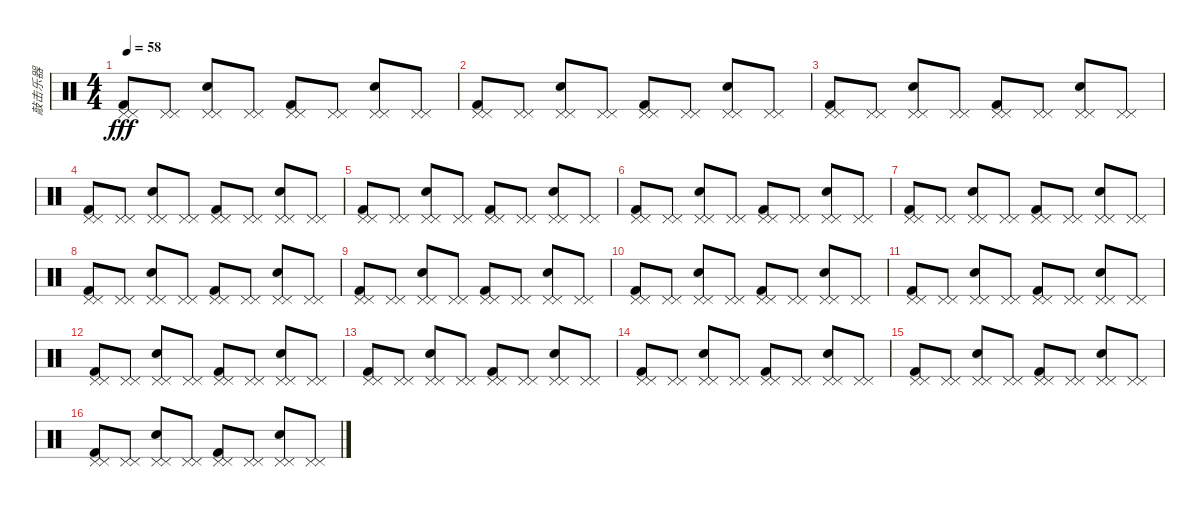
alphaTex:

\track ("敲击乐器" "敲击乐器") {instrument percussion}
\staff {score}
\articulation defaults
\ts (4 4)
\tempo 58
\clef neutral
\ks c
("Pedal Hi-Hat (hit)" "Pedal Hi-Hat (hit)" "Kick (hit) 2").8{dy fff} ("Pedal Hi-Hat (hit)" "Pedal Hi-Hat (hit)").8 ("Pedal Hi-Hat (hit)" "Pedal Hi-Hat (hit)" "Snare (hit) 2").8 ("Pedal Hi-Hat (hit)" "Pedal Hi-Hat (hit)").8 ("Pedal Hi-Hat (hit)" "Pedal Hi-Hat (hit)" "Kick (hit) 2").8 ("Pedal Hi-Hat (hit)" "Pedal Hi-Hat (hit)").8 ("Pedal Hi-Hat (hit)" "Pedal Hi-Hat (hit)" "Snare (hit) 2").8 ("Pedal Hi-Hat (hit)" "Pedal Hi-Hat (hit)").8 |
("Pedal Hi-Hat (hit)" "Pedal Hi-Hat (hit)" "Kick (hit) 2").8 ("Pedal Hi-Hat (hit)" "Pedal Hi-Hat (hit)").8 ("Pedal Hi-Hat (hit)" "Pedal Hi-Hat (hit)" "Snare (hit) 2").8 ("Pedal Hi-Hat (hit)" "Pedal Hi-Hat (hit)").8 ("Pedal Hi-Hat (hit)" "Pedal Hi-Hat (hit)" "Kick (hit) 2").8 ("Pedal Hi-Hat (hit)" "Pedal Hi-Hat (hit)").8 ("Pedal Hi-Hat (hit)" "Pedal Hi-Hat (hit)" "Snare (hit) 2").8 ("Pedal Hi-Hat (hit)" "Pedal Hi-Hat (hit)").8 |
("Pedal Hi-Hat (hit)" "Pedal Hi-Hat (hit)" "Kick (hit) 2").8 ("Pedal Hi-Hat (hit)" "Pedal Hi-Hat (hit)").8 ("Pedal Hi-Hat (hit)" "Pedal Hi-Hat (hit)" "Snare (hit) 2").8 ("Pedal Hi-Hat (hit)" "Pedal Hi-Hat (hit)").8 ("Pedal Hi-Hat (hit)" "Pedal Hi-Hat (hit)" "Kick (hit) 2").8 ("Pedal Hi-Hat (hit)" "Pedal Hi-Hat (hit)").8 ("Pedal Hi-Hat (hit)" "Pedal Hi-Hat (hit)" "Snare (hit) 2").8 ("Pedal Hi-Hat (hit)" "Pedal Hi-Hat (hit)").8 |
("Pedal Hi-Hat (hit)" "Pedal Hi-Hat (hit)" "Kick (hit) 2").8 ("Pedal Hi-Hat (hit)" "Pedal Hi-Hat (hit)").8 ("Pedal Hi-Hat (hit)" "Pedal Hi-Hat (hit)" "Snare (hit) 2").8 ("Pedal Hi-Hat (hit)" "Pedal Hi-Hat (hit)").8 ("Pedal Hi-Hat (hit)" "Pedal Hi-Hat (hit)" "Kick (hit) 2").8 ("Pedal Hi-Hat (hit)" "Pedal Hi-Hat (hit)").8 ("Pedal Hi-Hat (hit)" "Pedal Hi-Hat (hit)" "Snare (hit) 2").8 ("Pedal Hi-Hat (hit)" "Pedal Hi-Hat (hit)").8 |
("Pedal Hi-Hat (hit)" "Pedal Hi-Hat (hit)" "Kick (hit) 2").8 ("Pedal Hi-Hat (hit)" "Pedal Hi-Hat (hit)").8 ("Pedal Hi-Hat (hit)" "Pedal Hi-Hat (hit)" "Snare (hit) 2").8 ("Pedal Hi-Hat (hit)" "Pedal Hi-Hat (hit)").8 ("Pedal Hi-Hat (hit)" "Pedal Hi-Hat (hit)" "Kick (hit) 2").8 ("Pedal Hi-Hat (hit)" "Pedal Hi-Hat (hit)").8 ("Pedal Hi-Hat (hit)" "Pedal Hi-Hat (hit)" "Snare (hit) 2").8 ("Pedal Hi-Hat (hit)" "Pedal Hi-Hat (hit)").8 |
("Pedal Hi-Hat (hit)" "Pedal Hi-Hat (hit)" "Kick (hit) 2").8 ("Pedal Hi-Hat (hit)" "Pedal Hi-Hat (hit)").8 ("Pedal Hi-Hat (hit)" "Pedal Hi-Hat (hit)" "Snare (hit) 2").8 ("Pedal Hi-Hat (hit)" "Pedal Hi-Hat (hit)").8 ("Pedal Hi-Hat (hit)" "Pedal Hi-Hat (hit)" "Kick (hit) 2").8 ("Pedal Hi-Hat (hit)" "Pedal Hi-Hat (hit)").8 ("Pedal Hi-Hat (hit)" "Pedal Hi-Hat (hit)" "Snare (hit) 2").8 ("Pedal Hi-Hat (hit)" "Pedal Hi-Hat (hit)").8 |
("Pedal Hi-Hat (hit)" "Pedal Hi-Hat (hit)" "Kick (hit) 2").8 ("Pedal Hi-Hat (hit)" "Pedal Hi-Hat (hit)").8 ("Pedal Hi-Hat (hit)" "Pedal Hi-Hat (hit)" "Snare (hit) 2").8 ("Pedal Hi-Hat (hit)" "Pedal Hi-Hat (hit)").8 ("Pedal Hi-Hat (hit)" "Pedal Hi-Hat (hit)" "Kick (hit) 2").8 ("Pedal Hi-Hat (hit)" "Pedal Hi-Hat (hit)").8 ("Pedal Hi-Hat (hit)" "Pedal Hi-Hat (hit)" "Snare (hit) 2").8 ("Pedal Hi-Hat (hit)" "Pedal Hi-Hat (hit)").8 |
("Pedal Hi-Hat (hit)" "Pedal Hi-Hat (hit)" "Kick (hit) 2").8 ("Pedal Hi-Hat (hit)" "Pedal Hi-Hat (hit)").8 ("Pedal Hi-Hat (hit)" "Pedal Hi-Hat (hit)" "Snare (hit) 2").8 ("Pedal Hi-Hat (hit)" "Pedal Hi-Hat (hit)").8 ("Pedal Hi-Hat (hit)" "Pedal Hi-Hat (hit)" "Kick (hit) 2").8 ("Pedal Hi-Hat (hit)" "Pedal Hi-Hat (hit)").8 ("Pedal Hi-Hat (hit)" "Pedal Hi-Hat (hit)" "Snare (hit) 2").8 ("Pedal Hi-Hat (hit)" "Pedal Hi-Hat (hit)").8 |
("Pedal Hi-Hat (hit)" "Pedal Hi-Hat (hit)" "Kick (hit) 2").8 ("Pedal Hi-Hat (hit)" "Pedal Hi-Hat (hit)").8 ("Pedal Hi-Hat (hit)" "Pedal Hi-Hat (hit)" "Snare (hit) 2").8 ("Pedal Hi-Hat (hit)" "Pedal Hi-Hat (hit)").8 ("Pedal Hi-Hat (hit)" "Pedal Hi-Hat (hit)" "Kick (hit) 2").8 ("Pedal Hi-Hat (hit)" "Pedal Hi-Hat (hit)").8 ("Pedal Hi-Hat (hit)" "Pedal Hi-Hat (hit)" "Snare (hit) 2").8 ("Pedal Hi-Hat (hit)" "Pedal Hi-Hat (hit)").8 |
("Pedal Hi-Hat (hit)" "Pedal Hi-Hat (hit)" "Kick (hit) 2").8 ("Pedal Hi-Hat (hit)" "Pedal Hi-Hat (hit)").8 ("Pedal Hi-Hat (hit)" "Pedal Hi-Hat (hit)" "Snare (hit) 2").8 ("Pedal Hi-Hat (hit)" "Pedal Hi-Hat (hit)").8 ("Pedal Hi-Hat (hit)" "Pedal Hi-Hat (hit)" "Kick (hit) 2").8 ("Pedal Hi-Hat (hit)" "Pedal Hi-Hat (hit)").8 ("Pedal Hi-Hat (hit)" "Pedal Hi-Hat (hit)" "Snare (hit) 2").8 ("Pedal Hi-Hat (hit)" "Pedal Hi-Hat (hit)").8 |
("Pedal Hi-Hat (hit)" "Pedal Hi-Hat (hit)" "Kick (hit) 2").8 ("Pedal Hi-Hat (hit)" "Pedal Hi-Hat (hit)").8 ("Pedal Hi-Hat (hit)" "Pedal Hi-Hat (hit)" "Snare (hit) 2").8 ("Pedal Hi-Hat (hit)" "Pedal Hi-Hat (hit)").8 ("Pedal Hi-Hat (hit)" "Pedal Hi-Hat (hit)" "Kick (hit) 2").8 ("Pedal Hi-Hat (hit)" "Pedal Hi-Hat (hit)").8 ("Pedal Hi-Hat (hit)" "Pedal Hi-Hat (hit)" "Snare (hit) 2").8 ("Pedal Hi-Hat (hit)" "Pedal Hi-Hat (hit)").8 |
("Pedal Hi-Hat (hit)" "Pedal Hi-Hat (hit)" "Kick (hit) 2").8 ("Pedal Hi-Hat (hit)" "Pedal Hi-Hat (hit)").8 ("Pedal Hi-Hat (hit)" "Pedal Hi-Hat (hit)" "Snare (hit) 2").8 ("Pedal Hi-Hat (hit)" "Pedal Hi-Hat (hit)").8 ("Pedal Hi-Hat (hit)" "Pedal Hi-Hat (hit)" "Kick (hit) 2").8 ("Pedal Hi-Hat (hit)" "Pedal Hi-Hat (hit)").8 ("Pedal Hi-Hat (hit)" "Pedal Hi-Hat (hit)" "Snare (hit) 2").8 ("Pedal Hi-Hat (hit)" "Pedal Hi-Hat (hit)").8 |
("Pedal Hi-Hat (hit)" "Pedal Hi-Hat (hit)" "Kick (hit) 2").8 ("Pedal Hi-Hat (hit)" "Pedal Hi-Hat (hit)").8 ("Pedal Hi-Hat (hit)" "Pedal Hi-Hat (hit)" "Snare (hit) 2").8 ("Pedal Hi-Hat (hit)" "Pedal Hi-Hat (hit)").8 ("Pedal Hi-Hat (hit)" "Pedal Hi-Hat (hit)" "Kick (hit) 2").8 ("Pedal Hi-Hat (hit)" "Pedal Hi-Hat (hit)").8 ("Pedal Hi-Hat (hit)" "Pedal Hi-Hat (hit)" "Snare (hit) 2").8 ("Pedal Hi-Hat (hit)" "Pedal Hi-Hat (hit)").8 |
("Pedal Hi-Hat (hit)" "Pedal Hi-Hat (hit)" "Kick (hit) 2").8 ("Pedal Hi-Hat (hit)" "Pedal Hi-Hat (hit)").8 ("Pedal Hi-Hat (hit)" "Pedal Hi-Hat (hit)" "Snare (hit) 2").8 ("Pedal Hi-Hat (hit)" "Pedal Hi-Hat (hit)").8 ("Pedal Hi-Hat (hit)" "Pedal Hi-Hat (hit)" "Kick (hit) 2").8 ("Pedal Hi-Hat (hit)" "Pedal Hi-Hat (hit)").8 ("Pedal Hi-Hat (hit)" "Pedal Hi-Hat (hit)" "Snare (hit) 2").8 ("Pedal Hi-Hat (hit)" "Pedal Hi-Hat (hit)").8 |
("Pedal Hi-Hat (hit)" "Pedal Hi-Hat (hit)" "Kick (hit) 2").8 ("Pedal Hi-Hat (hit)" "Pedal Hi-Hat (hit)").8 ("Pedal Hi-Hat (hit)" "Pedal Hi-Hat (hit)" "Snare (hit) 2").8 ("Pedal Hi-Hat (hit)" "Pedal Hi-Hat (hit)").8 ("Pedal Hi-Hat (hit)" "Pedal Hi-Hat (hit)" "Kick (hit) 2").8 ("Pedal Hi-Hat (hit)" "Pedal Hi-Hat (hit)").8 ("Pedal Hi-Hat (hit)" "Pedal Hi-Hat (hit)" "Snare (hit) 2").8 ("Pedal Hi-Hat (hit)" "Pedal Hi-Hat (hit)").8 |
("Pedal Hi-Hat (hit)" "Pedal Hi-Hat (hit)" "Kick (hit) 2").8 ("Pedal Hi-Hat (hit)" "Pedal Hi-Hat (hit)").8 ("Pedal Hi-Hat (hit)" "Pedal Hi-Hat (hit)" "Snare (hit) 2").8 ("Pedal Hi-Hat (hit)" "Pedal Hi-Hat (hit)").8 ("Pedal Hi-Hat (hit)" "Pedal Hi-Hat (hit)" "Kick (hit) 2").8 ("Pedal Hi-Hat (hit)" "Pedal Hi-Hat (hit)").8 ("Pedal Hi-Hat (hit)" "Pedal Hi-Hat (hit)" "Snare (hit) 2").8 ("Pedal Hi-Hat (hit)" "Pedal Hi-Hat (hit)").8
